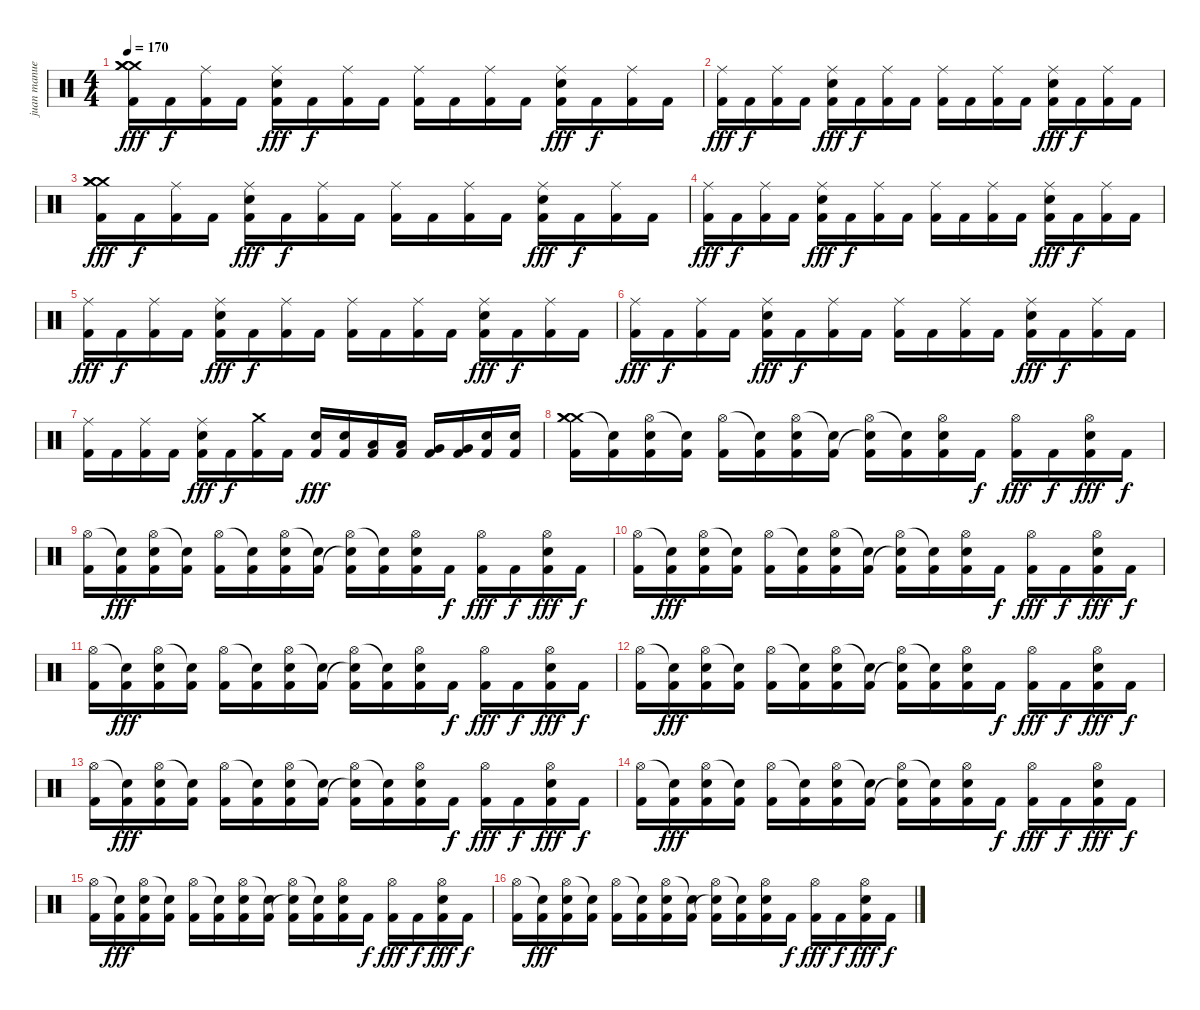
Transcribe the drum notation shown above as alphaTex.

\track ("juan manuel" "juan manue") {instrument percussion}
\staff {score}
\articulation defaults
\ts (4 4)
\tempo 170
\clef neutral
\ks c
("Crash medium (hit)" "Crash medium (hit)" "Crash medium (hit)" "Kick (hit) 2").16{dy fff} "Kick (hit) 2".16{dy f} ("Ride (middle)" "Kick (hit) 2").16 "Kick (hit) 2".16 ("Ride (middle)" "Snare (hit) 2" "Kick (hit) 2").16{dy fff} "Kick (hit) 2".16{dy f} ("Ride (middle)" "Kick (hit) 2").16 "Kick (hit) 2".16 ("Ride (middle)" "Kick (hit) 2").16 "Kick (hit) 2".16 ("Ride (middle)" "Kick (hit) 2").16 "Kick (hit) 2".16 ("Ride (middle)" "Snare (hit) 2" "Kick (hit) 2").16{dy fff} "Kick (hit) 2".16{dy f} ("Ride (middle)" "Kick (hit) 2").16 "Kick (hit) 2".16 |
("Ride (middle)" "Kick (hit) 2").16{dy fff} "Kick (hit) 2".16{dy f} ("Ride (middle)" "Kick (hit) 2").16 "Kick (hit) 2".16 ("Ride (middle)" "Snare (hit) 2" "Kick (hit) 2").16{dy fff} "Kick (hit) 2".16{dy f} ("Ride (middle)" "Kick (hit) 2").16 "Kick (hit) 2".16 ("Ride (middle)" "Kick (hit) 2").16 "Kick (hit) 2".16 ("Ride (middle)" "Kick (hit) 2").16 "Kick (hit) 2".16 ("Ride (middle)" "Snare (hit) 2" "Kick (hit) 2").16{dy fff} "Kick (hit) 2".16{dy f} ("Ride (middle)" "Kick (hit) 2").16 "Kick (hit) 2".16 |
("Crash medium (hit)" "Crash medium (hit)" "Crash medium (hit)" "Kick (hit) 2").16{dy fff} "Kick (hit) 2".16{dy f} ("Ride (middle)" "Kick (hit) 2").16 "Kick (hit) 2".16 ("Ride (middle)" "Snare (hit) 2" "Kick (hit) 2").16{dy fff} "Kick (hit) 2".16{dy f} ("Ride (middle)" "Kick (hit) 2").16 "Kick (hit) 2".16 ("Ride (middle)" "Kick (hit) 2").16 "Kick (hit) 2".16 ("Ride (middle)" "Kick (hit) 2").16 "Kick (hit) 2".16 ("Ride (middle)" "Snare (hit) 2" "Kick (hit) 2").16{dy fff} "Kick (hit) 2".16{dy f} ("Ride (middle)" "Kick (hit) 2").16 "Kick (hit) 2".16 |
("Ride (middle)" "Kick (hit) 2").16{dy fff} "Kick (hit) 2".16{dy f} ("Ride (middle)" "Kick (hit) 2").16 "Kick (hit) 2".16 ("Ride (middle)" "Snare (hit) 2" "Kick (hit) 2").16{dy fff} "Kick (hit) 2".16{dy f} ("Ride (middle)" "Kick (hit) 2").16 "Kick (hit) 2".16 ("Ride (middle)" "Kick (hit) 2").16 "Kick (hit) 2".16 ("Ride (middle)" "Kick (hit) 2").16 "Kick (hit) 2".16 ("Ride (middle)" "Snare (hit) 2" "Kick (hit) 2").16{dy fff} "Kick (hit) 2".16{dy f} ("Ride (middle)" "Kick (hit) 2").16 "Kick (hit) 2".16 |
("Ride (middle)" "Kick (hit) 2").16{dy fff} "Kick (hit) 2".16{dy f} ("Ride (middle)" "Kick (hit) 2").16 "Kick (hit) 2".16 ("Ride (middle)" "Snare (hit) 2" "Kick (hit) 2").16{dy fff} "Kick (hit) 2".16{dy f} ("Ride (middle)" "Kick (hit) 2").16 "Kick (hit) 2".16 ("Ride (middle)" "Kick (hit) 2").16 "Kick (hit) 2".16 ("Ride (middle)" "Kick (hit) 2").16 "Kick (hit) 2".16 ("Ride (middle)" "Snare (hit) 2" "Kick (hit) 2").16{dy fff} "Kick (hit) 2".16{dy f} ("Ride (middle)" "Kick (hit) 2").16 "Kick (hit) 2".16 |
("Ride (middle)" "Kick (hit) 2").16{dy fff} "Kick (hit) 2".16{dy f} ("Ride (middle)" "Kick (hit) 2").16 "Kick (hit) 2".16 ("Ride (middle)" "Snare (hit) 2" "Kick (hit) 2").16{dy fff} "Kick (hit) 2".16{dy f} ("Ride (middle)" "Kick (hit) 2").16 "Kick (hit) 2".16 ("Ride (middle)" "Kick (hit) 2").16 "Kick (hit) 2".16 ("Ride (middle)" "Kick (hit) 2").16 "Kick (hit) 2".16 ("Ride (middle)" "Snare (hit) 2" "Kick (hit) 2").16{dy fff} "Kick (hit) 2".16{dy f} ("Ride (middle)" "Kick (hit) 2").16 "Kick (hit) 2".16 |
("Ride (middle)" "Kick (hit) 2").16 "Kick (hit) 2".16 ("Ride (middle)" "Kick (hit) 2").16 "Kick (hit) 2".16 ("Ride (middle)" "Snare (hit) 2" "Kick (hit) 2").16{dy fff} "Kick (hit) 2".16{dy f} ("Crash medium (hit)" "Kick (hit) 2").16 "Kick (hit) 2".16 ("Electric Snare (hit)" "Kick (hit) 2").16{dy fff} ("Electric Snare (hit)" "Kick (hit) 2").16 ("Low Tom (hit)" "Kick (hit) 2").16 ("Low Tom (hit)" "Kick (hit) 2").16 ("Very Low Tom (hit)" "Kick (hit) 2").16 ("Very Low Tom (hit)" "Kick (hit) 2").16 ("Electric Snare (hit)" "Kick (hit) 2").16 ("Electric Snare (hit)" "Kick (hit) 2").16 |
("Crash medium (hit)" "Crash medium (hit)" "Crash medium (hit)" "Kick (hit) 2").16 ("Snare (hit)"{t} "Kick (hit) 2").16 ("Hi-Hat (open)" "Snare (hit) 2" "Kick (hit) 2").16 ("Snare (hit)"{t} "Kick (hit) 2").16 ("Hi-Hat (open)" "Kick (hit) 2").16 ("Snare (hit)"{t} "Kick (hit) 2").16 ("Hi-Hat (open)" "Snare (hit) 2" "Kick (hit) 2").16 ("Snare (hit)"{t} "Kick (hit) 2").16 ("Hi-Hat (open)" "Snare (hit)"{t} "Kick (hit) 2").16 ("Snare (hit)"{t} "Kick (hit) 2").16 ("Hi-Hat (open)" "Snare (hit) 2" "Kick (hit) 2").16 "Kick (hit) 2".16{dy f} ("Hi-Hat (open)" "Kick (hit) 2").16{dy fff} "Kick (hit) 2".16{dy f} ("Hi-Hat (open)" "Snare (hit) 2" "Kick (hit) 2").16{dy fff} "Kick (hit) 2".16{dy f} |
("Hi-Hat (open)" "Kick (hit) 2").16 ("Snare (hit)"{t} "Kick (hit) 2").16{dy fff} ("Hi-Hat (open)" "Snare (hit) 2" "Kick (hit) 2").16 ("Snare (hit)"{t} "Kick (hit) 2").16 ("Hi-Hat (open)" "Kick (hit) 2").16 ("Snare (hit)"{t} "Kick (hit) 2").16 ("Hi-Hat (open)" "Snare (hit) 2" "Kick (hit) 2").16 ("Snare (hit)"{t} "Kick (hit) 2").16 ("Hi-Hat (open)" "Snare (hit)"{t} "Kick (hit) 2").16 ("Snare (hit)"{t} "Kick (hit) 2").16 ("Hi-Hat (open)" "Snare (hit) 2" "Kick (hit) 2").16 "Kick (hit) 2".16{dy f} ("Hi-Hat (open)" "Kick (hit) 2").16{dy fff} "Kick (hit) 2".16{dy f} ("Hi-Hat (open)" "Snare (hit) 2" "Kick (hit) 2").16{dy fff} "Kick (hit) 2".16{dy f} |
("Hi-Hat (open)" "Kick (hit) 2").16 ("Snare (hit)"{t} "Kick (hit) 2").16{dy fff} ("Hi-Hat (open)" "Snare (hit) 2" "Kick (hit) 2").16 ("Snare (hit)"{t} "Kick (hit) 2").16 ("Hi-Hat (open)" "Kick (hit) 2").16 ("Snare (hit)"{t} "Kick (hit) 2").16 ("Hi-Hat (open)" "Snare (hit) 2" "Kick (hit) 2").16 ("Snare (hit)"{t} "Kick (hit) 2").16 ("Hi-Hat (open)" "Snare (hit)"{t} "Kick (hit) 2").16 ("Snare (hit)"{t} "Kick (hit) 2").16 ("Hi-Hat (open)" "Snare (hit) 2" "Kick (hit) 2").16 "Kick (hit) 2".16{dy f} ("Hi-Hat (open)" "Kick (hit) 2").16{dy fff} "Kick (hit) 2".16{dy f} ("Hi-Hat (open)" "Snare (hit) 2" "Kick (hit) 2").16{dy fff} "Kick (hit) 2".16{dy f} |
("Hi-Hat (open)" "Kick (hit) 2").16 ("Snare (hit)"{t} "Kick (hit) 2").16{dy fff} ("Hi-Hat (open)" "Snare (hit) 2" "Kick (hit) 2").16 ("Snare (hit)"{t} "Kick (hit) 2").16 ("Hi-Hat (open)" "Kick (hit) 2").16 ("Snare (hit)"{t} "Kick (hit) 2").16 ("Hi-Hat (open)" "Snare (hit) 2" "Kick (hit) 2").16 ("Snare (hit)"{t} "Kick (hit) 2").16 ("Hi-Hat (open)" "Snare (hit)"{t} "Kick (hit) 2").16 ("Snare (hit)"{t} "Kick (hit) 2").16 ("Hi-Hat (open)" "Snare (hit) 2" "Kick (hit) 2").16 "Kick (hit) 2".16{dy f} ("Hi-Hat (open)" "Kick (hit) 2").16{dy fff} "Kick (hit) 2".16{dy f} ("Hi-Hat (open)" "Snare (hit) 2" "Kick (hit) 2").16{dy fff} "Kick (hit) 2".16{dy f} |
("Hi-Hat (open)" "Kick (hit) 2").16 ("Snare (hit)"{t} "Kick (hit) 2").16{dy fff} ("Hi-Hat (open)" "Snare (hit) 2" "Kick (hit) 2").16 ("Snare (hit)"{t} "Kick (hit) 2").16 ("Hi-Hat (open)" "Kick (hit) 2").16 ("Snare (hit)"{t} "Kick (hit) 2").16 ("Hi-Hat (open)" "Snare (hit) 2" "Kick (hit) 2").16 ("Snare (hit)"{t} "Kick (hit) 2").16 ("Hi-Hat (open)" "Snare (hit)"{t} "Kick (hit) 2").16 ("Snare (hit)"{t} "Kick (hit) 2").16 ("Hi-Hat (open)" "Snare (hit) 2" "Kick (hit) 2").16 "Kick (hit) 2".16{dy f} ("Hi-Hat (open)" "Kick (hit) 2").16{dy fff} "Kick (hit) 2".16{dy f} ("Hi-Hat (open)" "Snare (hit) 2" "Kick (hit) 2").16{dy fff} "Kick (hit) 2".16{dy f} |
("Hi-Hat (open)" "Kick (hit) 2").16 ("Snare (hit)"{t} "Kick (hit) 2").16{dy fff} ("Hi-Hat (open)" "Snare (hit) 2" "Kick (hit) 2").16 ("Snare (hit)"{t} "Kick (hit) 2").16 ("Hi-Hat (open)" "Kick (hit) 2").16 ("Snare (hit)"{t} "Kick (hit) 2").16 ("Hi-Hat (open)" "Snare (hit) 2" "Kick (hit) 2").16 ("Snare (hit)"{t} "Kick (hit) 2").16 ("Hi-Hat (open)" "Snare (hit)"{t} "Kick (hit) 2").16 ("Snare (hit)"{t} "Kick (hit) 2").16 ("Hi-Hat (open)" "Snare (hit) 2" "Kick (hit) 2").16 "Kick (hit) 2".16{dy f} ("Hi-Hat (open)" "Kick (hit) 2").16{dy fff} "Kick (hit) 2".16{dy f} ("Hi-Hat (open)" "Snare (hit) 2" "Kick (hit) 2").16{dy fff} "Kick (hit) 2".16{dy f} |
("Hi-Hat (open)" "Kick (hit) 2").16 ("Snare (hit)"{t} "Kick (hit) 2").16{dy fff} ("Hi-Hat (open)" "Snare (hit) 2" "Kick (hit) 2").16 ("Snare (hit)"{t} "Kick (hit) 2").16 ("Hi-Hat (open)" "Kick (hit) 2").16 ("Snare (hit)"{t} "Kick (hit) 2").16 ("Hi-Hat (open)" "Snare (hit) 2" "Kick (hit) 2").16 ("Snare (hit)"{t} "Kick (hit) 2").16 ("Hi-Hat (open)" "Snare (hit)"{t} "Kick (hit) 2").16 ("Snare (hit)"{t} "Kick (hit) 2").16 ("Hi-Hat (open)" "Snare (hit) 2" "Kick (hit) 2").16 "Kick (hit) 2".16{dy f} ("Hi-Hat (open)" "Kick (hit) 2").16{dy fff} "Kick (hit) 2".16{dy f} ("Hi-Hat (open)" "Snare (hit) 2" "Kick (hit) 2").16{dy fff} "Kick (hit) 2".16{dy f} |
("Hi-Hat (open)" "Kick (hit) 2").16 ("Snare (hit)"{t} "Kick (hit) 2").16{dy fff} ("Hi-Hat (open)" "Snare (hit) 2" "Kick (hit) 2").16 ("Snare (hit)"{t} "Kick (hit) 2").16 ("Hi-Hat (open)" "Kick (hit) 2").16 ("Snare (hit)"{t} "Kick (hit) 2").16 ("Hi-Hat (open)" "Snare (hit) 2" "Kick (hit) 2").16 ("Snare (hit)"{t} "Kick (hit) 2").16 ("Hi-Hat (open)" "Snare (hit)"{t} "Kick (hit) 2").16 ("Snare (hit)"{t} "Kick (hit) 2").16 ("Hi-Hat (open)" "Snare (hit) 2" "Kick (hit) 2").16 "Kick (hit) 2".16{dy f} ("Hi-Hat (open)" "Kick (hit) 2").16{dy fff} "Kick (hit) 2".16{dy f} ("Hi-Hat (open)" "Snare (hit) 2" "Kick (hit) 2").16{dy fff} "Kick (hit) 2".16{dy f} |
("Hi-Hat (open)" "Kick (hit) 2").16 ("Snare (hit)"{t} "Kick (hit) 2").16{dy fff} ("Hi-Hat (open)" "Snare (hit) 2" "Kick (hit) 2").16 ("Snare (hit)"{t} "Kick (hit) 2").16 ("Hi-Hat (open)" "Kick (hit) 2").16 ("Snare (hit)"{t} "Kick (hit) 2").16 ("Hi-Hat (open)" "Snare (hit) 2" "Kick (hit) 2").16 ("Snare (hit)"{t} "Kick (hit) 2").16 ("Hi-Hat (open)" "Snare (hit)"{t} "Kick (hit) 2").16 ("Snare (hit)"{t} "Kick (hit) 2").16 ("Hi-Hat (open)" "Snare (hit) 2" "Kick (hit) 2").16 "Kick (hit) 2".16{dy f} ("Hi-Hat (open)" "Kick (hit) 2").16{dy fff} "Kick (hit) 2".16{dy f} ("Hi-Hat (open)" "Snare (hit) 2" "Kick (hit) 2").16{dy fff} "Kick (hit) 2".16{dy f}
